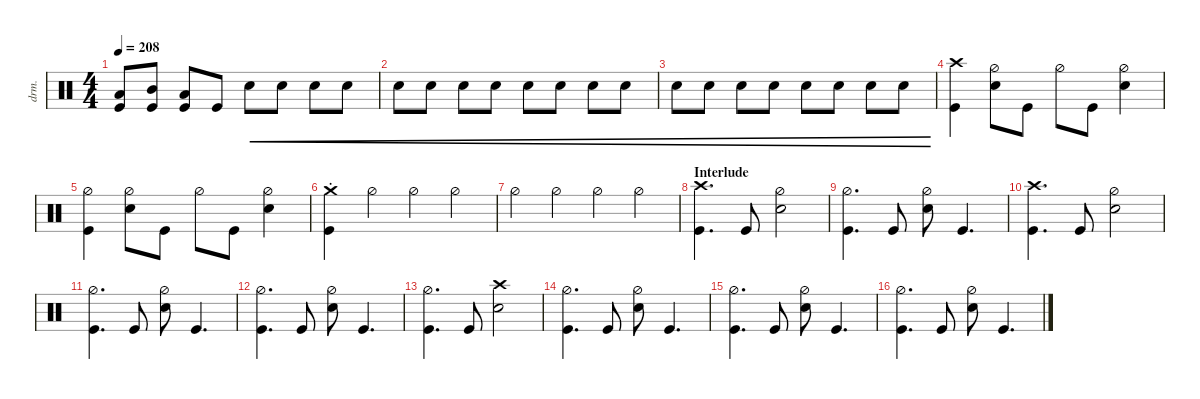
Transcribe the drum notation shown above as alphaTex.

\defaultSystemsLayout 4
\hideDynamics
\bracketExtendMode nobrackets
\otherSystemsTrackNameOrientation horizontal
\track ("Drums" "drm.") {multiBarRest instrument percussion}
\staff
\articulation defaults
\ts (4 4)
\tempo 208
\clef neutral
\ks c
("Kick (hit)" "Low Tom (hit)").8{dy f} ("Kick (hit)" "Mid Tom (hit)").8 ("Kick (hit)" "Low Tom (hit)").8 "Kick (hit)".8 "Snare (hit) 2".8{cre dy mp} "Snare (hit) 2".8{cre} "Snare (hit) 2".8{cre} "Snare (hit) 2".8{cre} |
"Snare (hit) 2".8{cre dy mf} "Snare (hit) 2".8{cre} "Snare (hit) 2".8{cre} "Snare (hit) 2".8{cre} "Snare (hit) 2".8{cre dy f} "Snare (hit) 2".8{cre} "Snare (hit) 2".8{cre} "Snare (hit) 2".8{cre} |
"Snare (hit) 2".8{cre} "Snare (hit) 2".8{cre} "Snare (hit) 2".8{cre} "Snare (hit) 2".8{cre} "Snare (hit) 2".8{cre} "Snare (hit) 2".8{cre} "Snare (hit) 2".8{cre} "Snare (hit) 2".8{cre} |
("Crash high (hit)" "Kick (hit)").4 ("Snare (hit) 2" "Hi-Hat (half)").8 "Kick (hit)".8 "Hi-Hat (half)".8 "Kick (hit)".8 ("Snare (hit) 2" "Hi-Hat (half)").4 |
("Kick (hit)" "Hi-Hat (half)").4 ("Snare (hit) 2" "Hi-Hat (half)").8 "Kick (hit)".8 "Hi-Hat (half)".8 "Kick (hit)".8 ("Snare (hit) 2" "Hi-Hat (half)").4 |
("Kick (hit)" "Crash medium (hit)"{st}).4 "Hi-Hat (half)".4 "Hi-Hat (half)".4 "Hi-Hat (half)".4 |
"Hi-Hat (half)".4 "Hi-Hat (half)".4 "Hi-Hat (half)".4 "Hi-Hat (half)".4 |
\section ("" "Interlude")
("Crash high (hit)" "Kick (hit)").4{d} "Kick (hit)".8 ("Snare (hit) 2" "Hi-Hat (half)").2 |
("Kick (hit)" "Hi-Hat (half)").4{d} "Kick (hit)".8 ("Snare (hit) 2" "Hi-Hat (half)").8 "Kick (hit)".4{d} |
("Crash high (hit)" "Kick (hit)").4{d} "Kick (hit)".8 ("Snare (hit) 2" "Hi-Hat (half)").2 |
("Kick (hit)" "Hi-Hat (half)").4{d} "Kick (hit)".8 ("Snare (hit) 2" "Hi-Hat (half)").8 "Kick (hit)".4{d} |
("Kick (hit)" "Hi-Hat (half)").4{d} "Kick (hit)".8 ("Snare (hit) 2" "Hi-Hat (half)").8 "Kick (hit)".4{d} |
("Kick (hit)" "Hi-Hat (half)").4{d} "Kick (hit)".8 ("Snare (hit) 2" "Crash high (hit)").2 |
("Kick (hit)" "Hi-Hat (half)").4{d} "Kick (hit)".8 ("Snare (hit) 2" "Hi-Hat (half)").8 "Kick (hit)".4{d} |
("Kick (hit)" "Hi-Hat (half)").4{d} "Kick (hit)".8 ("Snare (hit) 2" "Hi-Hat (half)").8 "Kick (hit)".4{d} |
("Kick (hit)" "Hi-Hat (half)").4{d} "Kick (hit)".8 ("Snare (hit) 2" "Hi-Hat (half)").8 "Kick (hit)".4{d}
